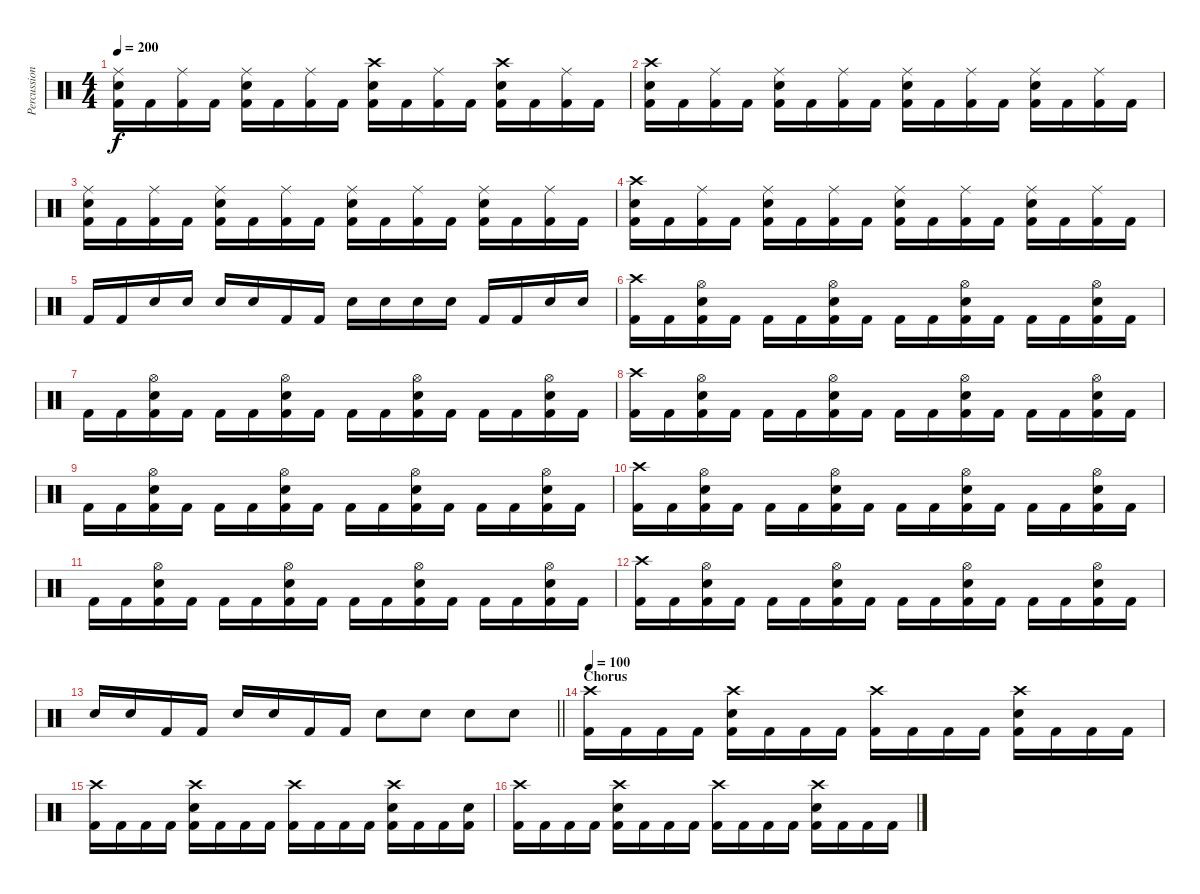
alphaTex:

\track ("Percussion" "Percussion") {instrument percussion}
\staff {score}
\articulation defaults
\ts (4 4)
\tempo 200
\clef neutral
\ks c
("Ride (middle)" "Electric Snare (hit)" "Kick (hit) 2").16{dy f} "Kick (hit) 2".16 ("Ride (middle)" "Kick (hit) 2").16 "Kick (hit) 2".16 ("Ride (middle)" "Electric Snare (hit)" "Kick (hit) 2").16 "Kick (hit) 2".16 ("Ride (middle)" "Kick (hit) 2").16 "Kick (hit) 2".16 ("Crash high (hit)" "Electric Snare (hit)" "Kick (hit) 2").16 "Kick (hit) 2".16 ("Ride (middle)" "Kick (hit) 2").16 "Kick (hit) 2".16 ("Crash high (hit)" "Electric Snare (hit)" "Kick (hit) 2").16 "Kick (hit) 2".16 ("Ride (middle)" "Kick (hit) 2").16 "Kick (hit) 2".16 |
("Crash high (hit)" "Electric Snare (hit)" "Kick (hit) 2").16 "Kick (hit) 2".16 ("Ride (middle)" "Kick (hit) 2").16 "Kick (hit) 2".16 ("Ride (middle)" "Electric Snare (hit)" "Kick (hit) 2").16 "Kick (hit) 2".16 ("Ride (middle)" "Kick (hit) 2").16 "Kick (hit) 2".16 ("Ride (middle)" "Electric Snare (hit)" "Kick (hit) 2").16 "Kick (hit) 2".16 ("Ride (middle)" "Kick (hit) 2").16 "Kick (hit) 2".16 ("Ride (middle)" "Electric Snare (hit)" "Kick (hit) 2").16 "Kick (hit) 2".16 ("Ride (middle)" "Kick (hit) 2").16 "Kick (hit) 2".16 |
("Ride (middle)" "Electric Snare (hit)" "Kick (hit) 2").16 "Kick (hit) 2".16 ("Ride (middle)" "Kick (hit) 2").16 "Kick (hit) 2".16 ("Ride (middle)" "Electric Snare (hit)" "Kick (hit) 2").16 "Kick (hit) 2".16 ("Ride (middle)" "Kick (hit) 2").16 "Kick (hit) 2".16 ("Ride (middle)" "Electric Snare (hit)" "Kick (hit) 2").16 "Kick (hit) 2".16 ("Ride (middle)" "Kick (hit) 2").16 "Kick (hit) 2".16 ("Ride (middle)" "Electric Snare (hit)" "Kick (hit) 2").16 "Kick (hit) 2".16 ("Ride (middle)" "Kick (hit) 2").16 "Kick (hit) 2".16 |
("Crash high (hit)" "Electric Snare (hit)" "Kick (hit) 2").16 "Kick (hit) 2".16 ("Ride (middle)" "Kick (hit) 2").16 "Kick (hit) 2".16 ("Ride (middle)" "Electric Snare (hit)" "Kick (hit) 2").16 "Kick (hit) 2".16 ("Ride (middle)" "Kick (hit) 2").16 "Kick (hit) 2".16 ("Ride (middle)" "Electric Snare (hit)" "Kick (hit) 2").16 "Kick (hit) 2".16 ("Ride (middle)" "Kick (hit) 2").16 "Kick (hit) 2".16 ("Ride (middle)" "Electric Snare (hit)" "Kick (hit) 2").16 "Kick (hit) 2".16 ("Ride (middle)" "Kick (hit) 2").16 "Kick (hit) 2".16 |
"Kick (hit) 2".16 "Kick (hit) 2".16 "Electric Snare (hit)".16 "Electric Snare (hit)".16 "Electric Snare (hit)".16 "Electric Snare (hit)".16 "Kick (hit) 2".16 "Kick (hit) 2".16 "Electric Snare (hit)".16 "Electric Snare (hit)".16 "Electric Snare (hit)".16 "Electric Snare (hit)".16 "Kick (hit) 2".16 "Kick (hit) 2".16 "Electric Snare (hit)".16 "Electric Snare (hit)".16 |
("Crash high (hit)" "Kick (hit) 2").16 "Kick (hit) 2".16 ("Hi-Hat (open)" "Electric Snare (hit)" "Kick (hit) 2").16 "Kick (hit) 2".16 "Kick (hit) 2".16 "Kick (hit) 2".16 ("Hi-Hat (open)" "Electric Snare (hit)" "Kick (hit) 2").16 "Kick (hit) 2".16 "Kick (hit) 2".16 "Kick (hit) 2".16 ("Hi-Hat (open)" "Electric Snare (hit)" "Kick (hit) 2").16 "Kick (hit) 2".16 "Kick (hit) 2".16 "Kick (hit) 2".16 ("Hi-Hat (open)" "Electric Snare (hit)" "Kick (hit) 2").16 "Kick (hit) 2".16 |
"Kick (hit) 2".16 "Kick (hit) 2".16 ("Hi-Hat (open)" "Electric Snare (hit)" "Kick (hit) 2").16 "Kick (hit) 2".16 "Kick (hit) 2".16 "Kick (hit) 2".16 ("Hi-Hat (open)" "Electric Snare (hit)" "Kick (hit) 2").16 "Kick (hit) 2".16 "Kick (hit) 2".16 "Kick (hit) 2".16 ("Hi-Hat (open)" "Electric Snare (hit)" "Kick (hit) 2").16 "Kick (hit) 2".16 "Kick (hit) 2".16 "Kick (hit) 2".16 ("Hi-Hat (open)" "Electric Snare (hit)" "Kick (hit) 2").16 "Kick (hit) 2".16 |
("Crash high (hit)" "Kick (hit) 2").16 "Kick (hit) 2".16 ("Hi-Hat (open)" "Electric Snare (hit)" "Kick (hit) 2").16 "Kick (hit) 2".16 "Kick (hit) 2".16 "Kick (hit) 2".16 ("Hi-Hat (open)" "Electric Snare (hit)" "Kick (hit) 2").16 "Kick (hit) 2".16 "Kick (hit) 2".16 "Kick (hit) 2".16 ("Hi-Hat (open)" "Electric Snare (hit)" "Kick (hit) 2").16 "Kick (hit) 2".16 "Kick (hit) 2".16 "Kick (hit) 2".16 ("Hi-Hat (open)" "Electric Snare (hit)" "Kick (hit) 2").16 "Kick (hit) 2".16 |
"Kick (hit) 2".16 "Kick (hit) 2".16 ("Hi-Hat (open)" "Electric Snare (hit)" "Kick (hit) 2").16 "Kick (hit) 2".16 "Kick (hit) 2".16 "Kick (hit) 2".16 ("Hi-Hat (open)" "Electric Snare (hit)" "Kick (hit) 2").16 "Kick (hit) 2".16 "Kick (hit) 2".16 "Kick (hit) 2".16 ("Hi-Hat (open)" "Electric Snare (hit)" "Kick (hit) 2").16 "Kick (hit) 2".16 "Kick (hit) 2".16 "Kick (hit) 2".16 ("Hi-Hat (open)" "Electric Snare (hit)" "Kick (hit) 2").16 "Kick (hit) 2".16 |
("Crash high (hit)" "Kick (hit) 2").16 "Kick (hit) 2".16 ("Hi-Hat (open)" "Electric Snare (hit)" "Kick (hit) 2").16 "Kick (hit) 2".16 "Kick (hit) 2".16 "Kick (hit) 2".16 ("Hi-Hat (open)" "Electric Snare (hit)" "Kick (hit) 2").16 "Kick (hit) 2".16 "Kick (hit) 2".16 "Kick (hit) 2".16 ("Hi-Hat (open)" "Electric Snare (hit)" "Kick (hit) 2").16 "Kick (hit) 2".16 "Kick (hit) 2".16 "Kick (hit) 2".16 ("Hi-Hat (open)" "Electric Snare (hit)" "Kick (hit) 2").16 "Kick (hit) 2".16 |
"Kick (hit) 2".16 "Kick (hit) 2".16 ("Hi-Hat (open)" "Electric Snare (hit)" "Kick (hit) 2").16 "Kick (hit) 2".16 "Kick (hit) 2".16 "Kick (hit) 2".16 ("Hi-Hat (open)" "Electric Snare (hit)" "Kick (hit) 2").16 "Kick (hit) 2".16 "Kick (hit) 2".16 "Kick (hit) 2".16 ("Hi-Hat (open)" "Electric Snare (hit)" "Kick (hit) 2").16 "Kick (hit) 2".16 "Kick (hit) 2".16 "Kick (hit) 2".16 ("Hi-Hat (open)" "Electric Snare (hit)" "Kick (hit) 2").16 "Kick (hit) 2".16 |
("Crash high (hit)" "Kick (hit) 2").16 "Kick (hit) 2".16 ("Hi-Hat (open)" "Electric Snare (hit)" "Kick (hit) 2").16 "Kick (hit) 2".16 "Kick (hit) 2".16 "Kick (hit) 2".16 ("Hi-Hat (open)" "Electric Snare (hit)" "Kick (hit) 2").16 "Kick (hit) 2".16 "Kick (hit) 2".16 "Kick (hit) 2".16 ("Hi-Hat (open)" "Electric Snare (hit)" "Kick (hit) 2").16 "Kick (hit) 2".16 "Kick (hit) 2".16 "Kick (hit) 2".16 ("Hi-Hat (open)" "Electric Snare (hit)" "Kick (hit) 2").16 "Kick (hit) 2".16 |
\barLineRight lightlight "Electric Snare (hit)".16 "Electric Snare (hit)".16 "Kick (hit) 2".16 "Kick (hit) 2".16 "Electric Snare (hit)".16 "Electric Snare (hit)".16 "Kick (hit) 2".16 "Kick (hit) 2".16 "Electric Snare (hit)".8 "Electric Snare (hit)".8 "Electric Snare (hit)".8 "Electric Snare (hit)".8
|
\section ("" "Chorus")
\tempo 100
("Crash high (hit)" "Kick (hit) 2").16 "Kick (hit) 2".16 "Kick (hit) 2".16 "Kick (hit) 2".16 ("Crash high (hit)" "Electric Snare (hit)" "Kick (hit) 2").16 "Kick (hit) 2".16 "Kick (hit) 2".16 "Kick (hit) 2".16 ("Crash high (hit)" "Kick (hit) 2").16 "Kick (hit) 2".16 "Kick (hit) 2".16 "Kick (hit) 2".16 ("Crash high (hit)" "Electric Snare (hit)" "Kick (hit) 2").16 "Kick (hit) 2".16 "Kick (hit) 2".16 "Kick (hit) 2".16 |
("Crash high (hit)" "Kick (hit) 2").16 "Kick (hit) 2".16 "Kick (hit) 2".16 "Kick (hit) 2".16 ("Crash high (hit)" "Electric Snare (hit)" "Kick (hit) 2").16 "Kick (hit) 2".16 "Kick (hit) 2".16 "Kick (hit) 2".16 ("Crash high (hit)" "Kick (hit) 2").16 "Kick (hit) 2".16 "Kick (hit) 2".16 "Kick (hit) 2".16 ("Crash high (hit)" "Electric Snare (hit)" "Kick (hit) 2").16 "Kick (hit) 2".16 "Kick (hit) 2".16 ("Electric Snare (hit)" "Kick (hit) 2").16 |
("Crash high (hit)" "Kick (hit) 2").16 "Kick (hit) 2".16 "Kick (hit) 2".16 "Kick (hit) 2".16 ("Crash high (hit)" "Electric Snare (hit)" "Kick (hit) 2").16 "Kick (hit) 2".16 "Kick (hit) 2".16 "Kick (hit) 2".16 ("Crash high (hit)" "Kick (hit) 2").16 "Kick (hit) 2".16 "Kick (hit) 2".16 "Kick (hit) 2".16 ("Crash high (hit)" "Electric Snare (hit)" "Kick (hit) 2").16 "Kick (hit) 2".16 "Kick (hit) 2".16 "Kick (hit) 2".16
